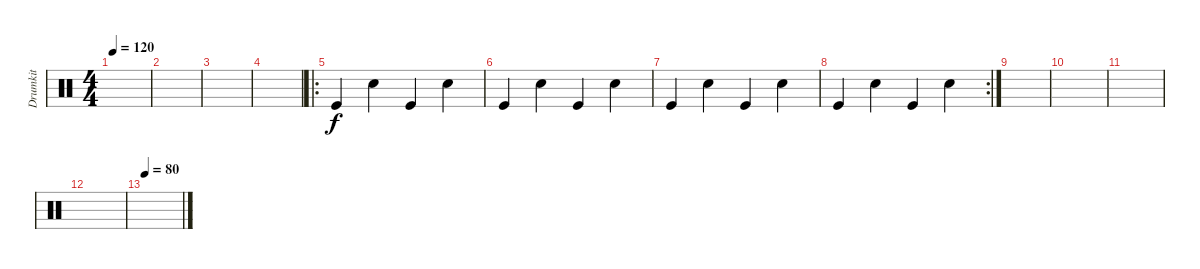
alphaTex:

\track ("Drumkit" "Drumkit") {instrument percussion}
\staff {score}
\articulation defaults
\ts (4 4)
\tempo 120
\clef neutral
\ks c
|
|
|
|
\ro "Kick (hit)".4 "Snare (hit) 2".4 "Kick (hit)".4 "Snare (hit) 2".4
|
"Kick (hit)".4 "Snare (hit) 2".4 "Kick (hit)".4 "Snare (hit) 2".4 |
"Kick (hit)".4 "Snare (hit) 2".4 "Kick (hit)".4 "Snare (hit) 2".4 |
\rc 2 "Kick (hit)".4 "Snare (hit) 2".4 "Kick (hit)".4 "Snare (hit) 2".4
|
|
|
|
|
\tempo 80
